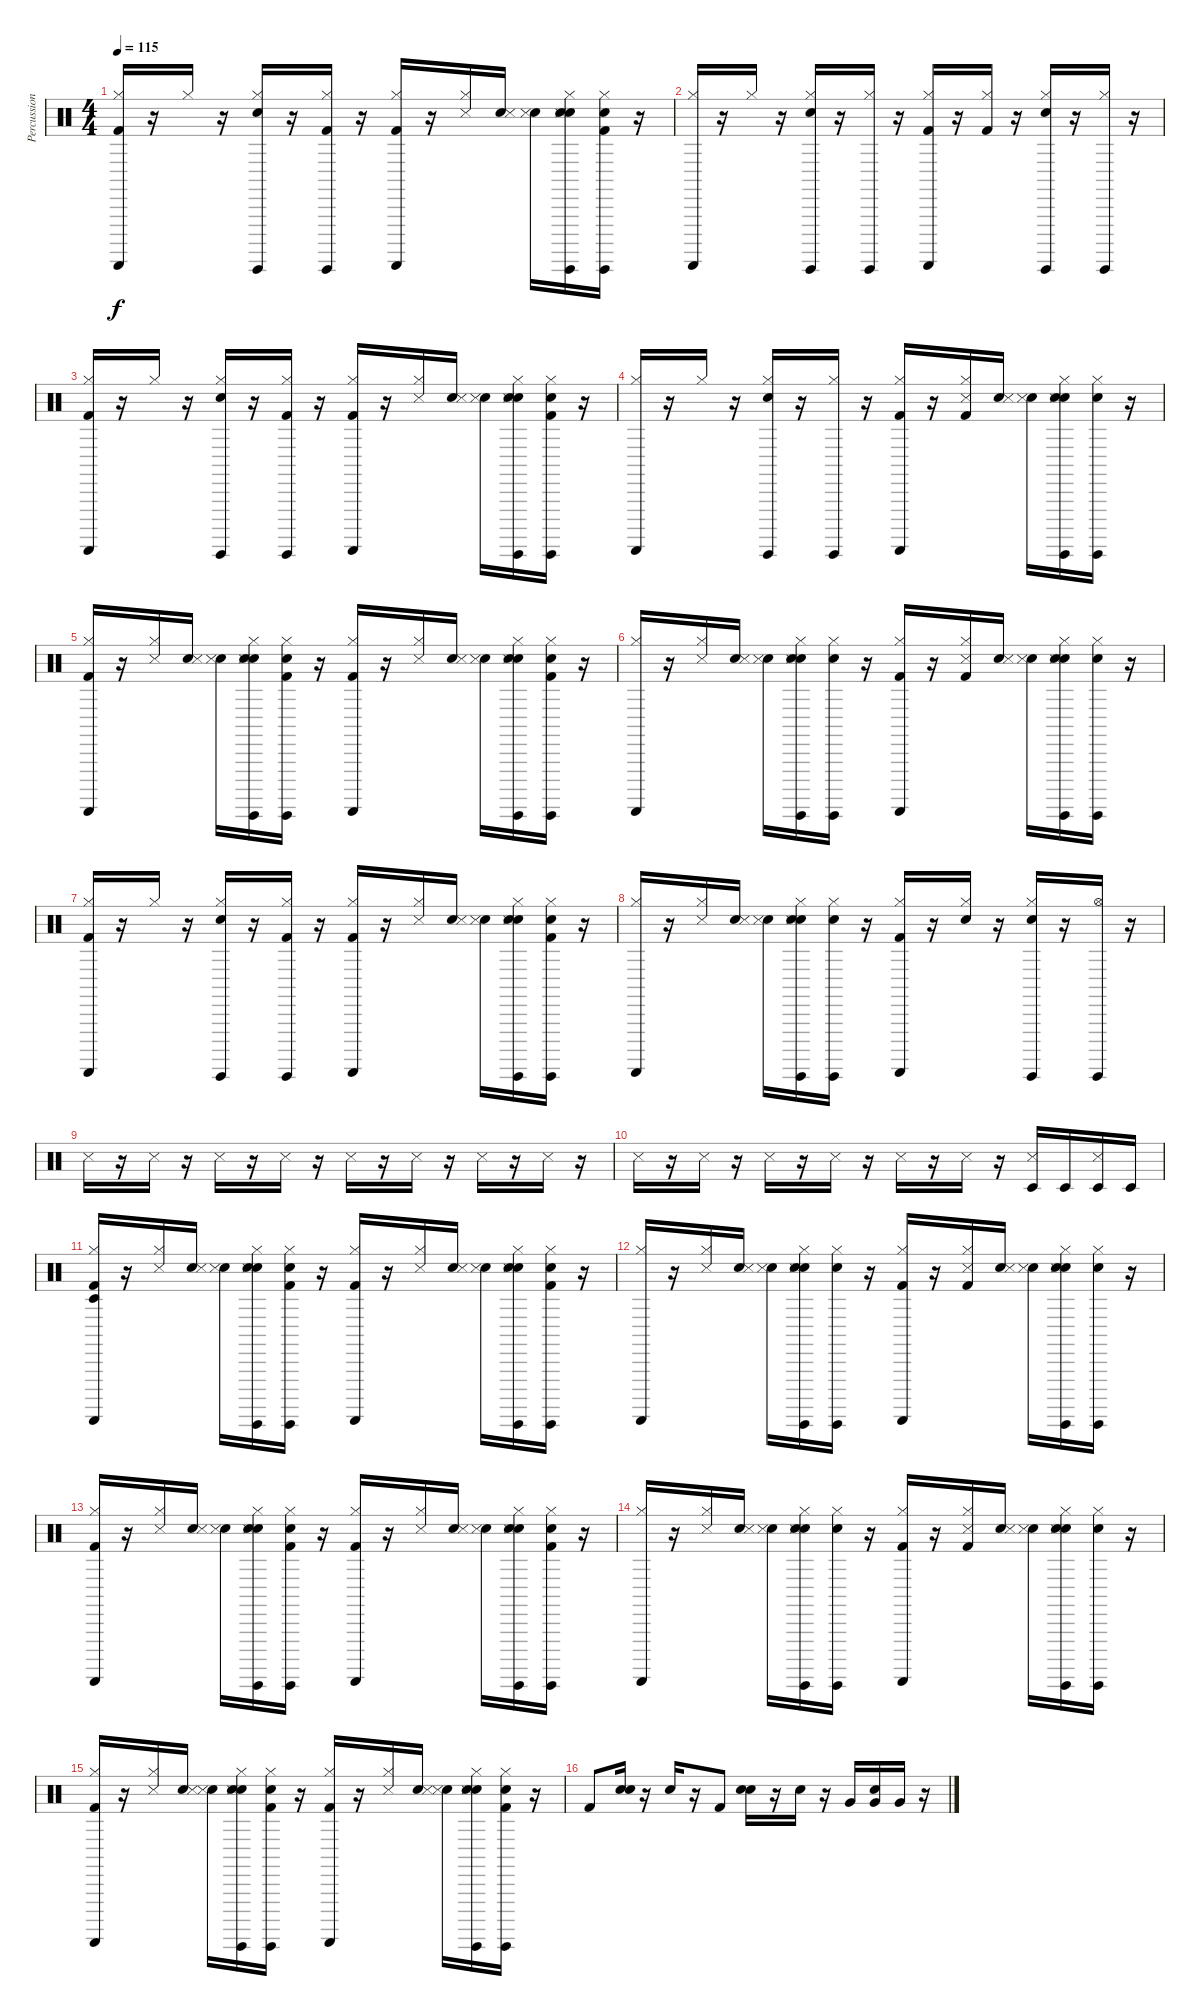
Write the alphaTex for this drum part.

\track ("Percussion" "Percussion") {instrument percussion}
\staff {score}
\articulation defaults
\ts (4 4)
\tempo 115
\clef neutral
\ks c
("Guiro (scrap-return)" "Hi-Hat (closed)" "Kick (hit) 2").16{dy f} r.16 "Hi-Hat (closed)".16 r.16 ("Guiro (hit)" "Hi-Hat (closed)" "Snare (hit) 2").16 r.16 ("Guiro (hit)" "Hi-Hat (closed)" "Kick (hit) 2").16 r.16 ("Guiro (scrap-return)" "Hi-Hat (closed)" "Kick (hit) 2").16 r.16 ("Hi-Hat (closed)" "Snare (side stick) 3").16 ("Snare (hit)" "Snare (side stick) 3").16 ("Snare (hit)" "Snare (side stick) 3").16 ("Snare (hit)" "Snare (side stick) 3" "Guiro (hit)" "Hi-Hat (closed)" "Snare (hit) 2").16 ("Snare (hit)" "Guiro (hit)" "Hi-Hat (closed)" "Kick (hit) 2").16 r.16 |
("Guiro (scrap-return)" "Hi-Hat (closed)").16 r.16 "Hi-Hat (closed)".16 r.16 ("Snare (hit) 2" "Guiro (hit)" "Hi-Hat (closed)").16 r.16 ("Guiro (hit)" "Hi-Hat (closed)").16 r.16 ("Guiro (scrap-return)" "Hi-Hat (closed)" "Kick (hit) 2").16 r.16 ("Hi-Hat (closed)" "Kick (hit) 2").16 r.16 ("Guiro (hit)" "Hi-Hat (closed)" "Snare (hit) 2").16 r.16 ("Guiro (hit)" "Hi-Hat (closed)").16 r.16 |
("Guiro (scrap-return)" "Hi-Hat (closed)" "Kick (hit) 2").16 r.16 "Hi-Hat (closed)".16 r.16 ("Guiro (hit)" "Hi-Hat (closed)" "Snare (hit) 2").16 r.16 ("Guiro (hit)" "Hi-Hat (closed)" "Kick (hit) 2").16 r.16 ("Guiro (scrap-return)" "Hi-Hat (closed)" "Kick (hit) 2").16 r.16 ("Hi-Hat (closed)" "Snare (side stick) 3").16 ("Snare (hit)" "Snare (side stick) 3").16 ("Snare (hit)" "Snare (side stick) 3").16 ("Snare (hit)" "Guiro (hit)" "Snare (side stick) 3" "Hi-Hat (closed)" "Snare (hit) 2").16 ("Snare (hit)" "Guiro (hit)" "Hi-Hat (closed)" "Kick (hit) 2").16 r.16 |
("Guiro (scrap-return)" "Hi-Hat (closed)").16 r.16 "Hi-Hat (closed)".16 r.16 ("Guiro (hit)" "Hi-Hat (closed)" "Snare (hit) 2").16 r.16 ("Guiro (hit)" "Hi-Hat (closed)").16 r.16 ("Guiro (scrap-return)" "Hi-Hat (closed)" "Kick (hit) 2").16 r.16 ("Hi-Hat (closed)" "Kick (hit) 2" "Snare (side stick) 3").16 ("Snare (hit)" "Snare (side stick) 3").16 ("Snare (hit)" "Snare (side stick) 3").16 ("Snare (hit)" "Snare (hit) 2" "Guiro (hit)" "Hi-Hat (closed)" "Snare (side stick) 3").16 ("Snare (hit)" "Guiro (hit)" "Hi-Hat (closed)").16 r.16 |
("Guiro (scrap-return)" "Hi-Hat (closed)" "Kick (hit) 2").16 r.16 ("Hi-Hat (closed)" "Snare (side stick) 3").16 ("Snare (hit)" "Snare (side stick) 3").16 ("Snare (hit)" "Snare (side stick) 3").16 ("Snare (hit)" "Guiro (hit)" "Snare (side stick) 3" "Hi-Hat (closed)" "Snare (hit) 2").16 ("Snare (hit)" "Guiro (hit)" "Hi-Hat (closed)" "Kick (hit) 2").16 r.16 ("Guiro (scrap-return)" "Hi-Hat (closed)" "Kick (hit) 2").16 r.16 ("Snare (side stick) 3" "Hi-Hat (closed)").16 ("Snare (hit)" "Snare (side stick) 3").16 ("Snare (hit)" "Snare (side stick) 3").16 ("Snare (hit)" "Snare (side stick) 3" "Guiro (hit)" "Hi-Hat (closed)" "Snare (hit) 2").16 ("Snare (hit)" "Guiro (hit)" "Hi-Hat (closed)" "Kick (hit) 2").16 r.16 |
("Guiro (scrap-return)" "Hi-Hat (closed)").16 r.16 ("Snare (side stick) 3" "Hi-Hat (closed)").16 ("Snare (hit)" "Snare (side stick) 3").16 ("Snare (hit)" "Snare (side stick) 3").16 ("Snare (hit)" "Guiro (hit)" "Hi-Hat (closed)" "Snare (side stick) 3" "Snare (hit) 2").16 ("Snare (hit)" "Guiro (hit)" "Hi-Hat (closed)").16 r.16 ("Kick (hit) 2" "Guiro (scrap-return)" "Hi-Hat (closed)").16 r.16 ("Snare (side stick) 3" "Hi-Hat (closed)" "Kick (hit) 2").16 ("Snare (hit)" "Snare (side stick) 3").16 ("Snare (hit)" "Snare (side stick) 3").16 ("Snare (hit)" "Guiro (hit)" "Hi-Hat (closed)" "Snare (side stick) 3" "Snare (hit) 2").16 ("Snare (hit)" "Guiro (hit)" "Hi-Hat (closed)").16 r.16 |
("Guiro (scrap-return)" "Hi-Hat (closed)" "Kick (hit) 2").16 r.16 "Hi-Hat (closed)".16 r.16 ("Guiro (hit)" "Hi-Hat (closed)" "Snare (hit) 2").16 r.16 ("Guiro (hit)" "Hi-Hat (closed)" "Kick (hit) 2").16 r.16 ("Guiro (scrap-return)" "Hi-Hat (closed)" "Kick (hit) 2").16 r.16 ("Hi-Hat (closed)" "Snare (side stick) 3").16 ("Snare (hit)" "Snare (side stick) 3").16 ("Snare (hit)" "Snare (side stick) 3").16 ("Snare (hit)" "Guiro (hit)" "Hi-Hat (closed)" "Snare (side stick) 3" "Snare (hit) 2").16 ("Snare (hit)" "Kick (hit) 2" "Guiro (hit)" "Hi-Hat (closed)").16 r.16 |
("Guiro (scrap-return)" "Hi-Hat (closed)").16 r.16 ("Hi-Hat (closed)" "Snare (side stick) 3").16 ("Snare (hit)" "Snare (side stick) 3").16 ("Snare (hit)" "Snare (side stick) 3").16 ("Snare (hit)" "Guiro (hit)" "Hi-Hat (closed)" "Snare (hit) 2" "Snare (side stick) 3").16 ("Snare (hit)" "Guiro (hit)" "Hi-Hat (closed)").16 r.16 ("Hi-Hat (closed)" "Kick (hit) 2" "Guiro (scrap-return)").16 r.16 ("Electric Snare (hit)" "Hi-Hat (closed)").16 r.16 ("Hi-Hat (closed)" "Electric Snare (hit)" "Guiro (hit)").16 r.16 ("Hi-Hat (open)" "Guiro (hit)").16 r.16 |
"Snare (side stick) 3".16 r.16 "Snare (side stick) 3".16 r.16 "Snare (side stick) 3".16 r.16 "Snare (side stick) 3".16 r.16 "Snare (side stick) 3".16 r.16 "Snare (side stick) 3".16 r.16 "Snare (side stick) 3".16 r.16 "Snare (side stick) 3".16 r.16 |
"Snare (side stick) 3".16 r.16 "Snare (side stick) 3".16 r.16 "Snare (side stick) 3".16 r.16 "Snare (side stick) 3".16 r.16 "Snare (side stick) 3".16 r.16 "Snare (side stick) 3".16 r.16 ("Timbale low (hit)" "Snare (side stick) 3").16 "Timbale low (hit)".16 ("Timbale low (hit)" "Snare (side stick) 3").16 "Timbale low (hit)".16 |
("Timbale low (hit)" "Guiro (scrap-return)" "Hi-Hat (closed)" "Kick (hit) 2").16 r.16 ("Hi-Hat (closed)" "Snare (side stick) 3").16 ("Snare (hit)" "Snare (side stick) 3").16 ("Snare (hit)" "Snare (side stick) 3").16 ("Snare (hit)" "Guiro (hit)" "Snare (side stick) 3" "Hi-Hat (closed)" "Snare (hit) 2").16 ("Snare (hit)" "Guiro (hit)" "Hi-Hat (closed)" "Kick (hit) 2").16 r.16 ("Guiro (scrap-return)" "Hi-Hat (closed)" "Kick (hit) 2").16 r.16 ("Snare (side stick) 3" "Hi-Hat (closed)").16 ("Snare (hit)" "Snare (side stick) 3").16 ("Snare (hit)" "Snare (side stick) 3").16 ("Snare (hit)" "Snare (side stick) 3" "Guiro (hit)" "Hi-Hat (closed)" "Snare (hit) 2").16 ("Snare (hit)" "Guiro (hit)" "Hi-Hat (closed)" "Kick (hit) 2").16 r.16 |
("Guiro (scrap-return)" "Hi-Hat (closed)").16 r.16 ("Snare (side stick) 3" "Hi-Hat (closed)").16 ("Snare (hit)" "Snare (side stick) 3").16 ("Snare (hit)" "Snare (side stick) 3").16 ("Snare (hit)" "Guiro (hit)" "Hi-Hat (closed)" "Snare (side stick) 3" "Snare (hit) 2").16 ("Snare (hit)" "Guiro (hit)" "Hi-Hat (closed)").16 r.16 ("Kick (hit) 2" "Guiro (scrap-return)" "Hi-Hat (closed)").16 r.16 ("Snare (side stick) 3" "Hi-Hat (closed)" "Kick (hit) 2").16 ("Snare (hit)" "Snare (side stick) 3").16 ("Snare (hit)" "Snare (side stick) 3").16 ("Snare (hit)" "Guiro (hit)" "Hi-Hat (closed)" "Snare (side stick) 3" "Snare (hit) 2").16 ("Snare (hit)" "Guiro (hit)" "Hi-Hat (closed)").16 r.16 |
("Guiro (scrap-return)" "Hi-Hat (closed)" "Kick (hit) 2").16 r.16 ("Hi-Hat (closed)" "Snare (side stick) 3").16 ("Snare (hit)" "Snare (side stick) 3").16 ("Snare (hit)" "Snare (side stick) 3").16 ("Snare (hit)" "Guiro (hit)" "Hi-Hat (closed)" "Snare (side stick) 3" "Snare (hit) 2").16 ("Snare (hit)" "Guiro (hit)" "Hi-Hat (closed)" "Kick (hit) 2").16 r.16 ("Guiro (scrap-return)" "Hi-Hat (closed)" "Kick (hit) 2").16 r.16 ("Snare (side stick) 3" "Hi-Hat (closed)").16 ("Snare (hit)" "Snare (side stick) 3").16 ("Snare (hit)" "Snare (side stick) 3").16 ("Snare (hit)" "Snare (hit) 2" "Hi-Hat (closed)" "Guiro (hit)" "Snare (side stick) 3").16 ("Snare (hit)" "Kick (hit) 2" "Guiro (hit)" "Hi-Hat (closed)").16 r.16 |
("Hi-Hat (closed)" "Guiro (scrap-return)").16 r.16 ("Hi-Hat (closed)" "Snare (side stick) 3").16 ("Snare (hit)" "Snare (side stick) 3").16 ("Snare (hit)" "Snare (side stick) 3").16 ("Snare (hit)" "Hi-Hat (closed)" "Guiro (hit)" "Snare (side stick) 3" "Snare (hit) 2").16 ("Snare (hit)" "Hi-Hat (closed)" "Guiro (hit)").16 r.16 ("Kick (hit) 2" "Guiro (scrap-return)" "Hi-Hat (closed)").16 r.16 ("Hi-Hat (closed)" "Snare (side stick) 3" "Kick (hit) 2").16 ("Snare (hit)" "Snare (side stick) 3").16 ("Snare (hit)" "Snare (side stick) 3").16 ("Snare (hit)" "Hi-Hat (closed)" "Guiro (hit)" "Snare (side stick) 3" "Snare (hit) 2").16 ("Snare (hit)" "Hi-Hat (closed)" "Guiro (hit)").16 r.16 |
("Guiro (scrap-return)" "Hi-Hat (closed)" "Kick (hit) 2").16 r.16 ("Hi-Hat (closed)" "Snare (side stick) 3").16 ("Snare (hit)" "Snare (side stick) 3").16 ("Snare (hit)" "Snare (side stick) 3").16 ("Snare (hit)" "Guiro (hit)" "Hi-Hat (closed)" "Snare (side stick) 3" "Snare (hit) 2").16 ("Snare (hit)" "Guiro (hit)" "Hi-Hat (closed)" "Kick (hit) 2").16 r.16 ("Guiro (scrap-return)" "Hi-Hat (closed)" "Kick (hit) 2").16 r.16 ("Snare (side stick) 3" "Hi-Hat (closed)").16 ("Snare (hit)" "Snare (side stick) 3").16 ("Snare (hit)" "Snare (side stick) 3").16 ("Snare (hit)" "Snare (hit) 2" "Hi-Hat (closed)" "Guiro (hit)" "Snare (side stick) 3").16 ("Snare (hit)" "Kick (hit) 2" "Guiro (hit)" "Hi-Hat (closed)").16 r.16 |
"Kick (hit) 2".8 ("Snare (hit)" "Electric Snare (hit)").16 r.16 "Electric Snare (hit)".16 r.16 "Kick (hit) 2".8 ("Snare (hit)" "Electric Snare (hit)").16 r.16 "Electric Snare (hit)".16 r.16 "Very Low Tom (hit)".16 ("Snare (hit)" "Very Low Tom (hit)").16 "Very Low Tom (hit)".16 r.16
